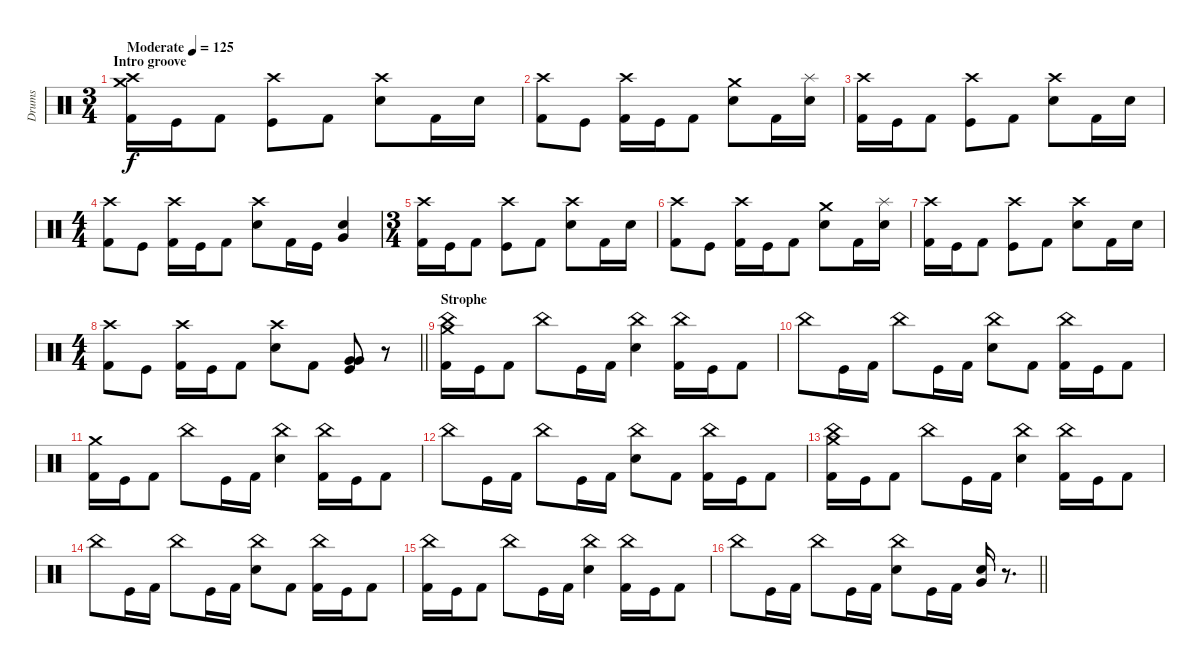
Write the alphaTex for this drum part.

\track ("Drums" "Drums") {instrument percussion}
\staff {score}
\articulation defaults
\ts (3 4)
\section ("" "Intro groove")
\tempo (125 "Moderate")
\clef neutral
\ks c
("Crash high (hit)" "Crash medium (hit)" "Kick (hit) 2").16{dy f} "Kick (hit)".16 "Kick (hit) 2".8 ("Crash high (hit)" "Kick (hit)").8 "Kick (hit) 2".8 ("Crash high (hit)" "Electric Snare (hit)").8 "Kick (hit) 2".16 "Electric Snare (hit)".16 |
("Crash high (hit)" "Kick (hit) 2").8 "Kick (hit)".8 ("Crash high (hit)" "Kick (hit) 2").16 "Kick (hit)".16 "Kick (hit) 2".8 ("Crash medium (hit)" "Electric Snare (hit)").8 "Kick (hit) 2".16 ("Splash (hit)" "Electric Snare (hit)").16 |
("Crash high (hit)" "Kick (hit) 2").16 "Kick (hit)".16 "Kick (hit) 2".8 ("Crash high (hit)" "Kick (hit)").8 "Kick (hit) 2".8 ("Crash high (hit)" "Electric Snare (hit)").8 "Kick (hit) 2".16 "Electric Snare (hit)".16 |
\ts (4 4)
("Crash high (hit)" "Kick (hit) 2").8 "Kick (hit)".8 ("Crash high (hit)" "Kick (hit) 2").16 "Kick (hit)".16 "Kick (hit) 2".8 ("Crash high (hit)" "Electric Snare (hit)").8 "Kick (hit) 2".16 "Kick (hit)".16 ("Electric Snare (hit)" "Very Low Tom (hit)").4 |
\ts (3 4)
("Crash high (hit)" "Kick (hit) 2").16 "Kick (hit)".16 "Kick (hit) 2".8 ("Crash high (hit)" "Kick (hit)").8 "Kick (hit) 2".8 ("Crash high (hit)" "Electric Snare (hit)").8 "Kick (hit) 2".16 "Electric Snare (hit)".16 |
("Crash high (hit)" "Kick (hit) 2").8 "Kick (hit)".8 ("Crash high (hit)" "Kick (hit) 2").16 "Kick (hit)".16 "Kick (hit) 2".8 ("Crash medium (hit)" "Electric Snare (hit)").8 "Kick (hit) 2".16 ("Splash (hit)" "Electric Snare (hit)").16 |
("Crash high (hit)" "Kick (hit) 2").16 "Kick (hit)".16 "Kick (hit) 2".8 ("Crash high (hit)" "Kick (hit)").8 "Kick (hit) 2".8 ("Crash high (hit)" "Electric Snare (hit)").8 "Kick (hit) 2".16 "Electric Snare (hit)".16 |
\ts (4 4)
\barLineRight lightlight
("Crash high (hit)" "Kick (hit) 2").8 "Kick (hit)".8 ("Crash high (hit)" "Kick (hit) 2").16 "Kick (hit)".16 "Kick (hit) 2".8 ("Crash high (hit)" "Electric Snare (hit)").8 "Kick (hit) 2".8 ("Very Low Tom (hit)" "Very Low Tom (hit)" "Kick (hit)").8 r.8 |
\section ("" "Strophe")
("Crash medium (hit)" "China (hit)" "Kick (hit) 2").16 "Kick (hit)".16 "Kick (hit) 2".8 "China (hit)".8 "Kick (hit)".16 "Kick (hit) 2".16 ("China (hit)" "Electric Snare (hit)").4 ("China (hit)" "Kick (hit) 2").16 "Kick (hit)".16 "Kick (hit) 2".8 |
"China (hit)".8 "Kick (hit)".16 "Kick (hit) 2".16 "China (hit)".8 "Kick (hit)".16 "Kick (hit) 2".16 ("China (hit)" "Electric Snare (hit)").8 "Kick (hit) 2".8 ("China (hit)" "Kick (hit) 2").16 "Kick (hit)".16 "Kick (hit) 2".8 |
("Crash medium (hit)" "Kick (hit) 2").16 "Kick (hit)".16 "Kick (hit) 2".8 "China (hit)".8 "Kick (hit)".16 "Kick (hit) 2".16 ("China (hit)" "Electric Snare (hit)").4 ("China (hit)" "Kick (hit) 2").16 "Kick (hit)".16 "Kick (hit) 2".8 |
"China (hit)".8 "Kick (hit)".16 "Kick (hit) 2".16 "China (hit)".8 "Kick (hit)".16 "Kick (hit) 2".16 ("China (hit)" "Electric Snare (hit)").8 "Kick (hit) 2".8 ("China (hit)" "Kick (hit) 2").16 "Kick (hit)".16 "Kick (hit) 2".8 |
("Crash medium (hit)" "China (hit)" "Kick (hit) 2").16 "Kick (hit)".16 "Kick (hit) 2".8 "China (hit)".8 "Kick (hit)".16 "Kick (hit) 2".16 ("China (hit)" "Electric Snare (hit)").4 ("China (hit)" "Kick (hit) 2").16 "Kick (hit)".16 "Kick (hit) 2".8 |
"China (hit)".8 "Kick (hit)".16 "Kick (hit) 2".16 "China (hit)".8 "Kick (hit)".16 "Kick (hit) 2".16 ("China (hit)" "Electric Snare (hit)").8 "Kick (hit) 2".8 ("China (hit)" "Kick (hit) 2").16 "Kick (hit)".16 "Kick (hit) 2".8 |
("China (hit)" "Kick (hit) 2").16 "Kick (hit)".16 "Kick (hit) 2".8 "China (hit)".8 "Kick (hit)".16 "Kick (hit) 2".16 ("China (hit)" "Electric Snare (hit)").4 ("China (hit)" "Kick (hit) 2").16 "Kick (hit)".16 "Kick (hit) 2".8 |
\barLineRight lightlight "China (hit)".8 "Kick (hit)".16 "Kick (hit) 2".16 "China (hit)".8 "Kick (hit)".16 "Kick (hit) 2".16
("China (hit)" "Electric Snare (hit)").8 "Kick (hit)".16 "Kick (hit) 2".16 ("Electric Snare (hit)" "Very Low Tom (hit)").16 r.8{d}
